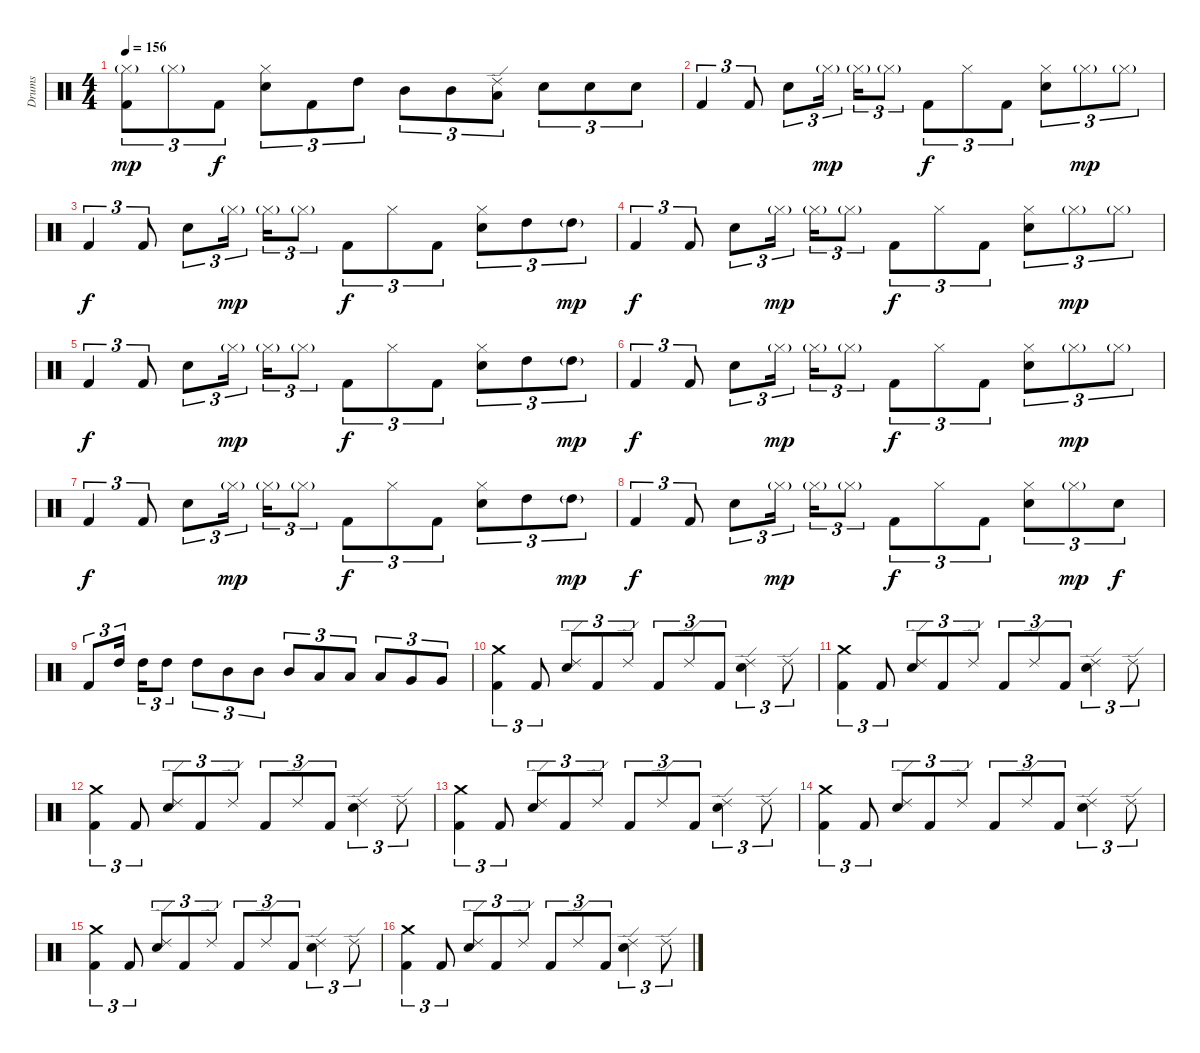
\track ("Drums" "Drums") {instrument percussion}
\staff {score}
\articulation defaults
\ts (4 4)
\tempo 156
\clef neutral
\ks c
("Hi-Hat (closed)"{g} "Kick (hit) 2").8{tu (3 2) dy mp} "Hi-Hat (closed)"{g}.8{tu (3 2)} "Kick (hit) 2".8{tu (3 2) dy f} ("Hi-Hat (closed)" "Electric Snare (hit)").8{tu (3 2)} "Kick (hit) 2".8{tu (3 2)} "High Tom (hit)".8{tu (3 2)} "Mid Tom (hit)".8{tu (3 2)} "Mid Tom (hit)".8{tu (3 2)} ("Ride (edge) 2" "Low Tom (hit)").8{tu (3 2)} "Electric Snare (hit)".8{tu (3 2)} "Electric Snare (hit)".8{tu (3 2)} "Electric Snare (hit)".8{tu (3 2)} |
"Kick (hit) 2".4{tu (3 2)} "Kick (hit) 2".8{tu (3 2)} "Electric Snare (hit)".8{tu (3 2)} "Hi-Hat (closed)"{g}.16{tu (3 2) dy mp} "Hi-Hat (closed)"{g}.16{tu (3 2)} "Hi-Hat (closed)"{g}.8{tu (3 2)} "Kick (hit) 2".8{tu (3 2) dy f} "Hi-Hat (closed)".8{tu (3 2)} "Kick (hit) 2".8{tu (3 2)} ("Hi-Hat (closed)" "Electric Snare (hit)").8{tu (3 2)} "Hi-Hat (closed)"{g}.8{tu (3 2) dy mp} "Hi-Hat (closed)"{g}.8{tu (3 2)} |
"Kick (hit) 2".4{tu (3 2) dy f} "Kick (hit) 2".8{tu (3 2)} "Electric Snare (hit)".8{tu (3 2)} "Hi-Hat (closed)"{g}.16{tu (3 2) dy mp} "Hi-Hat (closed)"{g}.16{tu (3 2)} "Hi-Hat (closed)"{g}.8{tu (3 2)} "Kick (hit) 2".8{tu (3 2) dy f} "Hi-Hat (closed)".8{tu (3 2)} "Kick (hit) 2".8{tu (3 2)} ("Hi-Hat (closed)" "Electric Snare (hit)").8{tu (3 2)} "High Tom (hit)".8{tu (3 2)} "High Tom (hit)"{g}.8{tu (3 2) dy mp} |
"Kick (hit) 2".4{tu (3 2) dy f} "Kick (hit) 2".8{tu (3 2)} "Electric Snare (hit)".8{tu (3 2)} "Hi-Hat (closed)"{g}.16{tu (3 2) dy mp} "Hi-Hat (closed)"{g}.16{tu (3 2)} "Hi-Hat (closed)"{g}.8{tu (3 2)} "Kick (hit) 2".8{tu (3 2) dy f} "Hi-Hat (closed)".8{tu (3 2)} "Kick (hit) 2".8{tu (3 2)} ("Hi-Hat (closed)" "Electric Snare (hit)").8{tu (3 2)} "Hi-Hat (closed)"{g}.8{tu (3 2) dy mp} "Hi-Hat (closed)"{g}.8{tu (3 2)} |
"Kick (hit) 2".4{tu (3 2) dy f} "Kick (hit) 2".8{tu (3 2)} "Electric Snare (hit)".8{tu (3 2)} "Hi-Hat (closed)"{g}.16{tu (3 2) dy mp} "Hi-Hat (closed)"{g}.16{tu (3 2)} "Hi-Hat (closed)"{g}.8{tu (3 2)} "Kick (hit) 2".8{tu (3 2) dy f} "Hi-Hat (closed)".8{tu (3 2)} "Kick (hit) 2".8{tu (3 2)} ("Hi-Hat (closed)" "Electric Snare (hit)").8{tu (3 2)} "High Tom (hit)".8{tu (3 2)} "High Tom (hit)"{g}.8{tu (3 2) dy mp} |
"Kick (hit) 2".4{tu (3 2) dy f} "Kick (hit) 2".8{tu (3 2)} "Electric Snare (hit)".8{tu (3 2)} "Hi-Hat (closed)"{g}.16{tu (3 2) dy mp} "Hi-Hat (closed)"{g}.16{tu (3 2)} "Hi-Hat (closed)"{g}.8{tu (3 2)} "Kick (hit) 2".8{tu (3 2) dy f} "Hi-Hat (closed)".8{tu (3 2)} "Kick (hit) 2".8{tu (3 2)} ("Hi-Hat (closed)" "Electric Snare (hit)").8{tu (3 2)} "Hi-Hat (closed)"{g}.8{tu (3 2) dy mp} "Hi-Hat (closed)"{g}.8{tu (3 2)} |
"Kick (hit) 2".4{tu (3 2) dy f} "Kick (hit) 2".8{tu (3 2)} "Electric Snare (hit)".8{tu (3 2)} "Hi-Hat (closed)"{g}.16{tu (3 2) dy mp} "Hi-Hat (closed)"{g}.16{tu (3 2)} "Hi-Hat (closed)"{g}.8{tu (3 2)} "Kick (hit) 2".8{tu (3 2) dy f} "Hi-Hat (closed)".8{tu (3 2)} "Kick (hit) 2".8{tu (3 2)} ("Hi-Hat (closed)" "Electric Snare (hit)").8{tu (3 2)} "High Tom (hit)".8{tu (3 2)} "High Tom (hit)"{g}.8{tu (3 2) dy mp} |
"Kick (hit) 2".4{tu (3 2) dy f} "Kick (hit) 2".8{tu (3 2)} "Electric Snare (hit)".8{tu (3 2)} "Hi-Hat (closed)"{g}.16{tu (3 2) dy mp} "Hi-Hat (closed)"{g}.16{tu (3 2)} "Hi-Hat (closed)"{g}.8{tu (3 2)} "Kick (hit) 2".8{tu (3 2) dy f} "Hi-Hat (closed)".8{tu (3 2)} "Kick (hit) 2".8{tu (3 2)} ("Hi-Hat (closed)" "Electric Snare (hit)").8{tu (3 2)} "Hi-Hat (closed)"{g}.8{tu (3 2) dy mp} "Electric Snare (hit)".8{tu (3 2) dy f} |
"Kick (hit) 2".8{tu (3 2)} "High Tom (hit)".16{tu (3 2)} "High Tom (hit)".16{tu (3 2)} "High Tom (hit)".8{tu (3 2)} "High Tom (hit)".8{tu (3 2)} "Mid Tom (hit)".8{tu (3 2)} "Mid Tom (hit)".8{tu (3 2)} "Mid Tom (hit)".8{tu (3 2)} "Low Tom (hit)".8{tu (3 2)} "Low Tom (hit)".8{tu (3 2)} "Low Tom (hit)".8{tu (3 2)} "Very Low Tom (hit)".8{tu (3 2)} "Very Low Tom (hit)".8{tu (3 2)} |
("Crash medium (hit)" "Kick (hit) 2").4{tu (3 2)} "Kick (hit) 2".8{tu (3 2)} ("Ride (edge) 2" "Electric Snare (hit)").8{tu (3 2)} "Kick (hit) 2".8{tu (3 2)} "Ride (edge) 2".8{tu (3 2)} "Kick (hit) 2".8{tu (3 2)} "Ride (edge) 2".8{tu (3 2)} "Kick (hit) 2".8{tu (3 2)} ("Ride (edge) 2" "Electric Snare (hit)").4{tu (3 2)} "Ride (edge) 2".8{tu (3 2)} |
("Crash medium (hit)" "Kick (hit) 2").4{tu (3 2)} "Kick (hit) 2".8{tu (3 2)} ("Ride (edge) 2" "Electric Snare (hit)").8{tu (3 2)} "Kick (hit) 2".8{tu (3 2)} "Ride (edge) 2".8{tu (3 2)} "Kick (hit) 2".8{tu (3 2)} "Ride (edge) 2".8{tu (3 2)} "Kick (hit) 2".8{tu (3 2)} ("Ride (edge) 2" "Electric Snare (hit)").4{tu (3 2)} "Ride (edge) 2".8{tu (3 2)} |
("Crash medium (hit)" "Kick (hit) 2").4{tu (3 2)} "Kick (hit) 2".8{tu (3 2)} ("Ride (edge) 2" "Electric Snare (hit)").8{tu (3 2)} "Kick (hit) 2".8{tu (3 2)} "Ride (edge) 2".8{tu (3 2)} "Kick (hit) 2".8{tu (3 2)} "Ride (edge) 2".8{tu (3 2)} "Kick (hit) 2".8{tu (3 2)} ("Ride (edge) 2" "Electric Snare (hit)").4{tu (3 2)} "Ride (edge) 2".8{tu (3 2)} |
("Crash medium (hit)" "Kick (hit) 2").4{tu (3 2)} "Kick (hit) 2".8{tu (3 2)} ("Ride (edge) 2" "Electric Snare (hit)").8{tu (3 2)} "Kick (hit) 2".8{tu (3 2)} "Ride (edge) 2".8{tu (3 2)} "Kick (hit) 2".8{tu (3 2)} "Ride (edge) 2".8{tu (3 2)} "Kick (hit) 2".8{tu (3 2)} ("Ride (edge) 2" "Electric Snare (hit)").4{tu (3 2)} "Ride (edge) 2".8{tu (3 2)} |
("Crash medium (hit)" "Kick (hit) 2").4{tu (3 2)} "Kick (hit) 2".8{tu (3 2)} ("Ride (edge) 2" "Electric Snare (hit)").8{tu (3 2)} "Kick (hit) 2".8{tu (3 2)} "Ride (edge) 2".8{tu (3 2)} "Kick (hit) 2".8{tu (3 2)} "Ride (edge) 2".8{tu (3 2)} "Kick (hit) 2".8{tu (3 2)} ("Ride (edge) 2" "Electric Snare (hit)").4{tu (3 2)} "Ride (edge) 2".8{tu (3 2)} |
("Crash medium (hit)" "Kick (hit) 2").4{tu (3 2)} "Kick (hit) 2".8{tu (3 2)} ("Ride (edge) 2" "Electric Snare (hit)").8{tu (3 2)} "Kick (hit) 2".8{tu (3 2)} "Ride (edge) 2".8{tu (3 2)} "Kick (hit) 2".8{tu (3 2)} "Ride (edge) 2".8{tu (3 2)} "Kick (hit) 2".8{tu (3 2)} ("Ride (edge) 2" "Electric Snare (hit)").4{tu (3 2)} "Ride (edge) 2".8{tu (3 2)} |
("Crash medium (hit)" "Kick (hit) 2").4{tu (3 2)} "Kick (hit) 2".8{tu (3 2)} ("Ride (edge) 2" "Electric Snare (hit)").8{tu (3 2)} "Kick (hit) 2".8{tu (3 2)} "Ride (edge) 2".8{tu (3 2)} "Kick (hit) 2".8{tu (3 2)} "Ride (edge) 2".8{tu (3 2)} "Kick (hit) 2".8{tu (3 2)} ("Ride (edge) 2" "Electric Snare (hit)").4{tu (3 2)} "Ride (edge) 2".8{tu (3 2)}
